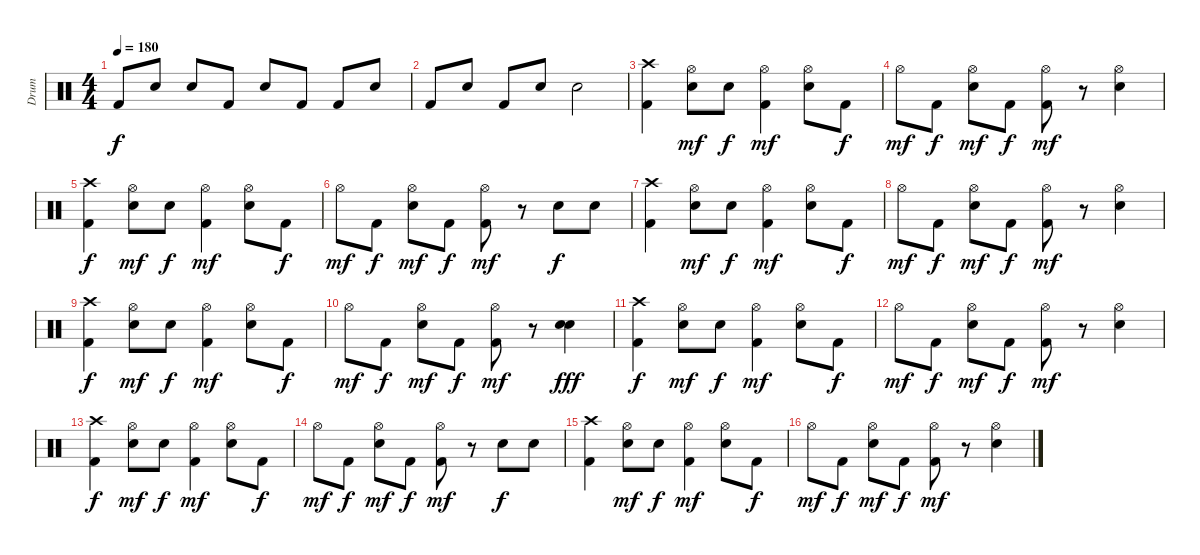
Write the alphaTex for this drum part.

\track ("Drum" "Drum") {instrument percussion}
\staff {score}
\articulation defaults
\ts (4 4)
\tempo 180
\clef neutral
\ks c "Kick (hit) 2".8{dy f} "Electric Snare (hit)".8 "Electric Snare (hit)".8 "Kick (hit) 2".8 "Electric Snare (hit)".8 "Kick (hit) 2".8 "Kick (hit) 2".8 "Electric Snare (hit)".8
|
"Kick (hit) 2".8 "Electric Snare (hit)".8 "Kick (hit) 2".8 "Electric Snare (hit)".8 "Electric Snare (hit)".2 |
("Crash high (hit)" "Kick (hit) 2").4{volume 16} ("Hi-Hat (open)" "Electric Snare (hit)").8{dy mf} "Electric Snare (hit)".8{dy f} ("Hi-Hat (open)" "Kick (hit) 2").4{dy mf} ("Hi-Hat (open)" "Electric Snare (hit)").8 "Kick (hit) 2".8{dy f} |
"Hi-Hat (open)".8{dy mf} "Kick (hit) 2".8{dy f} ("Hi-Hat (open)" "Electric Snare (hit)").8{dy mf} "Kick (hit) 2".8{dy f} ("Hi-Hat (open)" "Kick (hit) 2").8{dy mf} r.8 ("Hi-Hat (open)" "Electric Snare (hit)").4 |
("Crash high (hit)" "Kick (hit) 2").4{dy f volume 16} ("Hi-Hat (open)" "Electric Snare (hit)").8{dy mf} "Electric Snare (hit)".8{dy f} ("Hi-Hat (open)" "Kick (hit) 2").4{dy mf} ("Hi-Hat (open)" "Electric Snare (hit)").8 "Kick (hit) 2".8{dy f} |
"Hi-Hat (open)".8{dy mf} "Kick (hit) 2".8{dy f} ("Hi-Hat (open)" "Electric Snare (hit)").8{dy mf} "Kick (hit) 2".8{dy f} ("Hi-Hat (open)" "Kick (hit) 2").8{dy mf} r.8 "Electric Snare (hit)".8{dy f} "Electric Snare (hit)".8 |
("Crash high (hit)" "Kick (hit) 2").4{volume 16} ("Hi-Hat (open)" "Electric Snare (hit)").8{dy mf} "Electric Snare (hit)".8{dy f} ("Hi-Hat (open)" "Kick (hit) 2").4{dy mf} ("Hi-Hat (open)" "Electric Snare (hit)").8 "Kick (hit) 2".8{dy f} |
"Hi-Hat (open)".8{dy mf} "Kick (hit) 2".8{dy f} ("Hi-Hat (open)" "Electric Snare (hit)").8{dy mf} "Kick (hit) 2".8{dy f} ("Hi-Hat (open)" "Kick (hit) 2").8{dy mf} r.8 ("Hi-Hat (open)" "Electric Snare (hit)").4 |
("Crash high (hit)" "Kick (hit) 2").4{dy f volume 16} ("Hi-Hat (open)" "Electric Snare (hit)").8{dy mf} "Electric Snare (hit)".8{dy f} ("Hi-Hat (open)" "Kick (hit) 2").4{dy mf} ("Hi-Hat (open)" "Electric Snare (hit)").8 "Kick (hit) 2".8{dy f} |
"Hi-Hat (open)".8{dy mf} "Kick (hit) 2".8{dy f} ("Hi-Hat (open)" "Electric Snare (hit)").8{dy mf} "Kick (hit) 2".8{dy f} ("Hi-Hat (open)" "Kick (hit) 2").8{dy mf} r.8 ("Electric Snare (hit)" "Electric Snare (hit)").4{bd 120 dy fff} |
("Crash high (hit)" "Kick (hit) 2").4{dy f volume 16} ("Hi-Hat (open)" "Electric Snare (hit)").8{dy mf} "Electric Snare (hit)".8{dy f} ("Hi-Hat (open)" "Kick (hit) 2").4{dy mf} ("Hi-Hat (open)" "Electric Snare (hit)").8 "Kick (hit) 2".8{dy f} |
"Hi-Hat (open)".8{dy mf} "Kick (hit) 2".8{dy f} ("Hi-Hat (open)" "Electric Snare (hit)").8{dy mf} "Kick (hit) 2".8{dy f} ("Hi-Hat (open)" "Kick (hit) 2").8{dy mf} r.8 ("Hi-Hat (open)" "Electric Snare (hit)").4 |
("Crash high (hit)" "Kick (hit) 2").4{dy f volume 16} ("Hi-Hat (open)" "Electric Snare (hit)").8{dy mf} "Electric Snare (hit)".8{dy f} ("Hi-Hat (open)" "Kick (hit) 2").4{dy mf} ("Hi-Hat (open)" "Electric Snare (hit)").8 "Kick (hit) 2".8{dy f} |
"Hi-Hat (open)".8{dy mf} "Kick (hit) 2".8{dy f} ("Hi-Hat (open)" "Electric Snare (hit)").8{dy mf} "Kick (hit) 2".8{dy f} ("Hi-Hat (open)" "Kick (hit) 2").8{dy mf} r.8 "Electric Snare (hit)".8{dy f} "Electric Snare (hit)".8 |
("Crash high (hit)" "Kick (hit) 2").4{volume 16} ("Hi-Hat (open)" "Electric Snare (hit)").8{dy mf} "Electric Snare (hit)".8{dy f} ("Hi-Hat (open)" "Kick (hit) 2").4{dy mf} ("Hi-Hat (open)" "Electric Snare (hit)").8 "Kick (hit) 2".8{dy f} |
"Hi-Hat (open)".8{dy mf} "Kick (hit) 2".8{dy f} ("Hi-Hat (open)" "Electric Snare (hit)").8{dy mf} "Kick (hit) 2".8{dy f} ("Hi-Hat (open)" "Kick (hit) 2").8{dy mf} r.8 ("Hi-Hat (open)" "Electric Snare (hit)").4
